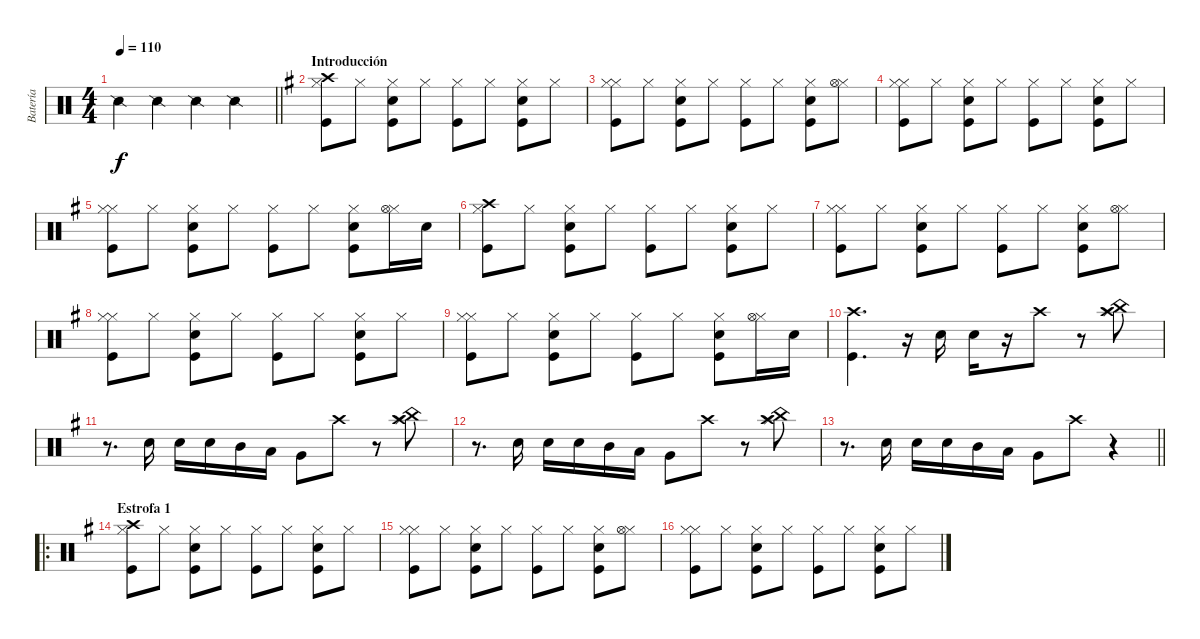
\track ("Batería" "Batería") {instrument percussion}
\staff {score}
\articulation defaults
\ts (4 4)
\tempo 110
\clef neutral
\barLineRight lightlight
\ks c "Snare (side stick) 2".4{dy f} "Snare (side stick) 2".4 "Snare (side stick) 2".4 "Snare (side stick) 2".4
|
\section ("" "Introducción")
\ks eminor
("Crash high (hit)" "Hi-Hat (closed)" "Kick (hit)").8 "Hi-Hat (closed)".8 ("Snare (hit) 2" "Hi-Hat (closed)" "Kick (hit)").8 "Hi-Hat (closed)".8 ("Hi-Hat (closed)" "Kick (hit)").8 "Hi-Hat (closed)".8 ("Hi-Hat (closed)" "Snare (hit) 2" "Kick (hit)").8 "Hi-Hat (closed)".8 |
("Hi-Hat (closed)" "Hi-Hat (closed)" "Kick (hit)").8 "Hi-Hat (closed)".8 ("Hi-Hat (closed)" "Snare (hit) 2" "Kick (hit)").8 "Hi-Hat (closed)".8 ("Hi-Hat (closed)" "Kick (hit)").8 "Hi-Hat (closed)".8 ("Hi-Hat (closed)" "Snare (hit) 2" "Kick (hit)").8 ("Hi-Hat (closed)" "Hi-Hat (open)").8 |
("Hi-Hat (closed)" "Hi-Hat (closed)" "Kick (hit)").8 "Hi-Hat (closed)".8 ("Hi-Hat (closed)" "Snare (hit) 2" "Kick (hit)").8 "Hi-Hat (closed)".8 ("Hi-Hat (closed)" "Kick (hit)").8 "Hi-Hat (closed)".8 ("Hi-Hat (closed)" "Snare (hit) 2" "Kick (hit)").8 "Hi-Hat (closed)".8 |
("Hi-Hat (closed)" "Hi-Hat (closed)" "Kick (hit)").8 "Hi-Hat (closed)".8 ("Hi-Hat (closed)" "Snare (hit) 2" "Kick (hit)").8 "Hi-Hat (closed)".8 ("Hi-Hat (closed)" "Kick (hit)").8 "Hi-Hat (closed)".8 ("Hi-Hat (closed)" "Snare (hit) 2" "Kick (hit)").8 ("Hi-Hat (closed)" "Hi-Hat (open)").16 "Snare (hit) 2".16 |
("Crash high (hit)" "Hi-Hat (closed)" "Kick (hit)").8 "Hi-Hat (closed)".8 ("Snare (hit) 2" "Hi-Hat (closed)" "Kick (hit)").8 "Hi-Hat (closed)".8 ("Hi-Hat (closed)" "Kick (hit)").8 "Hi-Hat (closed)".8 ("Hi-Hat (closed)" "Snare (hit) 2" "Kick (hit)").8 "Hi-Hat (closed)".8 |
("Hi-Hat (closed)" "Hi-Hat (closed)" "Kick (hit)").8 "Hi-Hat (closed)".8 ("Hi-Hat (closed)" "Snare (hit) 2" "Kick (hit)").8 "Hi-Hat (closed)".8 ("Hi-Hat (closed)" "Kick (hit)").8 "Hi-Hat (closed)".8 ("Hi-Hat (closed)" "Snare (hit) 2" "Kick (hit)").8 ("Hi-Hat (closed)" "Hi-Hat (open)").8 |
("Hi-Hat (closed)" "Hi-Hat (closed)" "Kick (hit)").8 "Hi-Hat (closed)".8 ("Hi-Hat (closed)" "Snare (hit) 2" "Kick (hit)").8 "Hi-Hat (closed)".8 ("Hi-Hat (closed)" "Kick (hit)").8 "Hi-Hat (closed)".8 ("Hi-Hat (closed)" "Snare (hit) 2" "Kick (hit)").8 "Hi-Hat (closed)".8 |
("Hi-Hat (closed)" "Hi-Hat (closed)" "Kick (hit)").8 "Hi-Hat (closed)".8 ("Hi-Hat (closed)" "Snare (hit) 2" "Kick (hit)").8 "Hi-Hat (closed)".8 ("Hi-Hat (closed)" "Kick (hit)").8 "Hi-Hat (closed)".8 ("Hi-Hat (closed)" "Snare (hit) 2" "Kick (hit)").8 ("Hi-Hat (closed)" "Hi-Hat (open)").16 "Snare (hit) 2".16 |
("Crash high (hit)" "Kick (hit)").4{d} r.16 "Snare (hit) 2".16 "Snare (hit) 2".16 r.16 "Crash high (hit)".8 r.8 ("Splash (hit)" "China (hit)" "Crash high (hit)").8 |
r.8{d} "Snare (hit) 2".16 "Snare (hit) 2".16 "Snare (hit) 2".16 "Mid Tom (hit)".16 "Low Tom (hit)".16 "Very Low Tom (hit)".8 "Crash high (hit)".8 r.8 ("Splash (hit)" "China (hit)" "Crash high (hit)").8 |
r.8{d} "Snare (hit) 2".16 "Snare (hit) 2".16 "Snare (hit) 2".16 "Mid Tom (hit)".16 "Low Tom (hit)".16 "Very Low Tom (hit)".8 "Crash high (hit)".8 r.8 ("Splash (hit)" "China (hit)" "Crash high (hit)").8 |
\barLineRight lightlight
r.8{d} "Snare (hit) 2".16 "Snare (hit) 2".16 "Snare (hit) 2".16 "Mid Tom (hit)".16 "Low Tom (hit)".16 "Very Low Tom (hit)".8 "Crash high (hit)".8 r.4 |
\ro
\section ("" "Estrofa 1")
("Crash high (hit)" "Hi-Hat (closed)" "Kick (hit)").8 "Hi-Hat (closed)".8 ("Snare (hit) 2" "Hi-Hat (closed)" "Kick (hit)").8 "Hi-Hat (closed)".8 ("Hi-Hat (closed)" "Kick (hit)").8 "Hi-Hat (closed)".8 ("Hi-Hat (closed)" "Snare (hit) 2" "Kick (hit)").8 "Hi-Hat (closed)".8 |
("Hi-Hat (closed)" "Hi-Hat (closed)" "Kick (hit)").8 "Hi-Hat (closed)".8 ("Hi-Hat (closed)" "Snare (hit) 2" "Kick (hit)").8 "Hi-Hat (closed)".8 ("Hi-Hat (closed)" "Kick (hit)").8 "Hi-Hat (closed)".8 ("Hi-Hat (closed)" "Snare (hit) 2" "Kick (hit)").8 ("Hi-Hat (closed)" "Hi-Hat (open)").8 |
("Hi-Hat (closed)" "Hi-Hat (closed)" "Kick (hit)").8 "Hi-Hat (closed)".8 ("Hi-Hat (closed)" "Snare (hit) 2" "Kick (hit)").8 "Hi-Hat (closed)".8 ("Hi-Hat (closed)" "Kick (hit)").8 "Hi-Hat (closed)".8 ("Hi-Hat (closed)" "Snare (hit) 2" "Kick (hit)").8 "Hi-Hat (closed)".8
